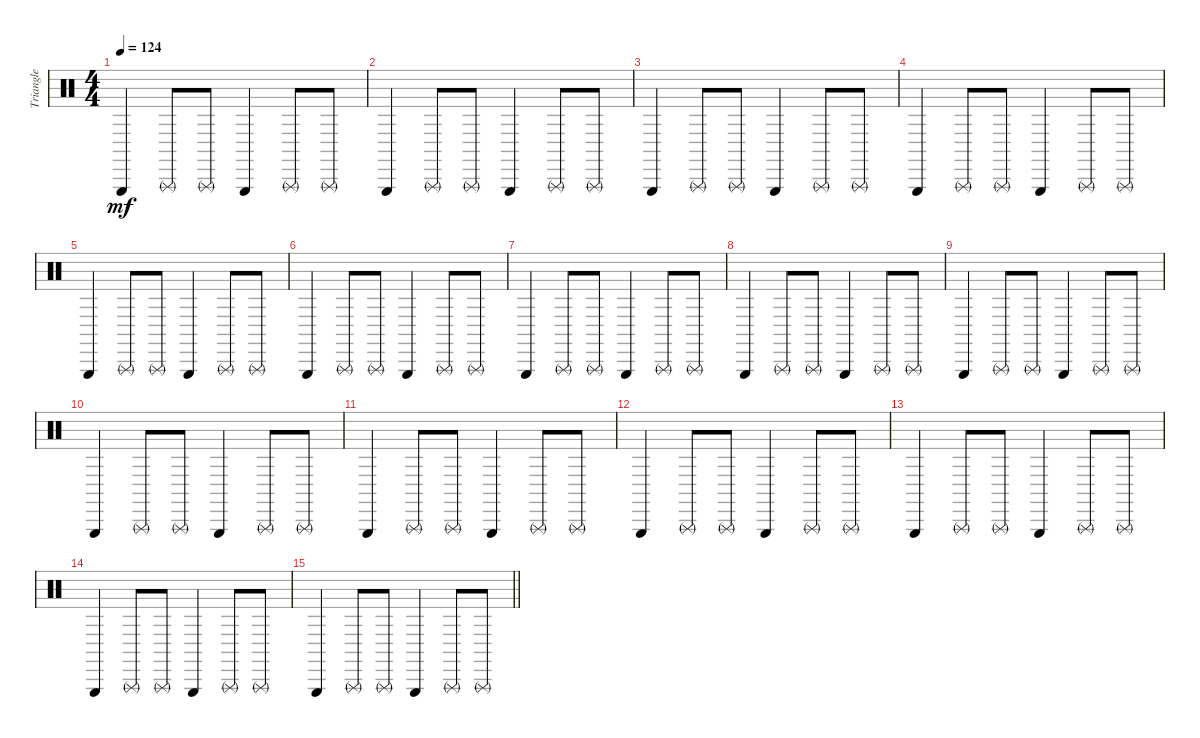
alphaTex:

\track ("Triangle" "Triangle") {instrument percussion}
\staff {score}
\articulation defaults
\ts (4 4)
\tempo 124
\clef neutral
\ks c "Triangle (hit)".4{dy mf} "Triangle (rnute)".8 "Triangle (rnute)".8 "Triangle (hit)".4 "Triangle (rnute)".8 "Triangle (rnute)".8
|
"Triangle (hit)".4 "Triangle (rnute)".8 "Triangle (rnute)".8 "Triangle (hit)".4 "Triangle (rnute)".8 "Triangle (rnute)".8 |
"Triangle (hit)".4 "Triangle (rnute)".8 "Triangle (rnute)".8 "Triangle (hit)".4 "Triangle (rnute)".8 "Triangle (rnute)".8 |
"Triangle (hit)".4 "Triangle (rnute)".8 "Triangle (rnute)".8 "Triangle (hit)".4 "Triangle (rnute)".8 "Triangle (rnute)".8 |
"Triangle (hit)".4 "Triangle (rnute)".8 "Triangle (rnute)".8 "Triangle (hit)".4 "Triangle (rnute)".8 "Triangle (rnute)".8 |
"Triangle (hit)".4 "Triangle (rnute)".8 "Triangle (rnute)".8 "Triangle (hit)".4 "Triangle (rnute)".8 "Triangle (rnute)".8 |
"Triangle (hit)".4 "Triangle (rnute)".8 "Triangle (rnute)".8 "Triangle (hit)".4 "Triangle (rnute)".8 "Triangle (rnute)".8 |
"Triangle (hit)".4 "Triangle (rnute)".8 "Triangle (rnute)".8 "Triangle (hit)".4 "Triangle (rnute)".8 "Triangle (rnute)".8 |
"Triangle (hit)".4 "Triangle (rnute)".8 "Triangle (rnute)".8 "Triangle (hit)".4 "Triangle (rnute)".8 "Triangle (rnute)".8 |
"Triangle (hit)".4 "Triangle (rnute)".8 "Triangle (rnute)".8 "Triangle (hit)".4 "Triangle (rnute)".8 "Triangle (rnute)".8 |
"Triangle (hit)".4 "Triangle (rnute)".8 "Triangle (rnute)".8 "Triangle (hit)".4 "Triangle (rnute)".8 "Triangle (rnute)".8 |
"Triangle (hit)".4 "Triangle (rnute)".8 "Triangle (rnute)".8 "Triangle (hit)".4 "Triangle (rnute)".8 "Triangle (rnute)".8 |
"Triangle (hit)".4 "Triangle (rnute)".8 "Triangle (rnute)".8 "Triangle (hit)".4 "Triangle (rnute)".8 "Triangle (rnute)".8 |
"Triangle (hit)".4 "Triangle (rnute)".8 "Triangle (rnute)".8 "Triangle (hit)".4 "Triangle (rnute)".8 "Triangle (rnute)".8 |
\barLineRight lightlight "Triangle (hit)".4 "Triangle (rnute)".8 "Triangle (rnute)".8 "Triangle (hit)".4 "Triangle (rnute)".8 "Triangle (rnute)".8
